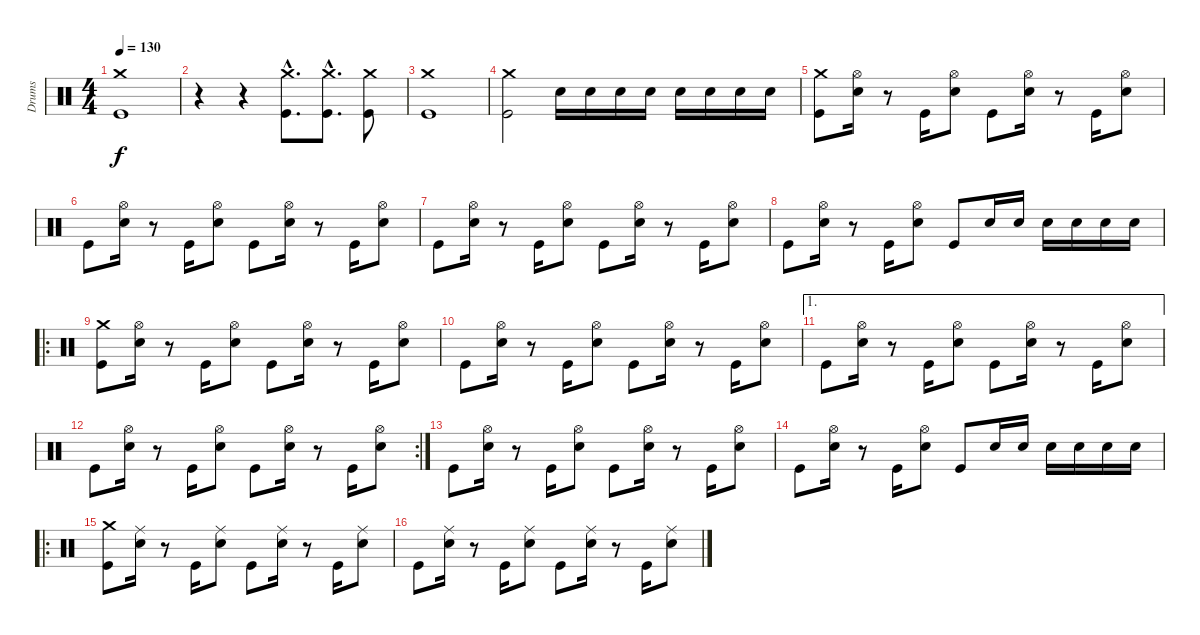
\track ("Drums" "Drums") {instrument percussion}
\staff {score}
\articulation defaults
\ts (4 4)
\tempo 130
\clef neutral
\ks c
("Crash medium (hit)" "Kick (hit)").1{dy f} |
r.4 r.4 ("Crash medium (hit)"{hac} "Kick (hit)"{hac}).8{d} ("Crash medium (hit)"{hac} "Kick (hit)"{hac}).8{d} ("Crash medium (hit)" "Kick (hit)").8 |
("Crash medium (hit)" "Kick (hit)").1 |
("Crash medium (hit)" "Kick (hit)").2 "Electric Snare (hit)".16 "Electric Snare (hit)".16 "Electric Snare (hit)".16 "Electric Snare (hit)".16 "Electric Snare (hit)".16 "Electric Snare (hit)".16 "Electric Snare (hit)".16 "Electric Snare (hit)".16 |
("Crash medium (hit)" "Kick (hit)").8 ("Hi-Hat (open)" "Electric Snare (hit)").16 r.8 "Kick (hit)".16 ("Hi-Hat (open)" "Electric Snare (hit)").8 "Kick (hit)".8 ("Hi-Hat (open)" "Electric Snare (hit)").16 r.8 "Kick (hit)".16 ("Hi-Hat (open)" "Electric Snare (hit)").8 |
"Kick (hit)".8 ("Hi-Hat (open)" "Electric Snare (hit)").16 r.8 "Kick (hit)".16 ("Hi-Hat (open)" "Electric Snare (hit)").8 "Kick (hit)".8 ("Hi-Hat (open)" "Electric Snare (hit)").16 r.8 "Kick (hit)".16 ("Hi-Hat (open)" "Electric Snare (hit)").8 |
"Kick (hit)".8 ("Hi-Hat (open)" "Electric Snare (hit)").16 r.8 "Kick (hit)".16 ("Hi-Hat (open)" "Electric Snare (hit)").8 "Kick (hit)".8 ("Hi-Hat (open)" "Electric Snare (hit)").16 r.8 "Kick (hit)".16 ("Hi-Hat (open)" "Electric Snare (hit)").8 |
"Kick (hit)".8 ("Hi-Hat (open)" "Electric Snare (hit)").16 r.8 "Kick (hit)".16 ("Hi-Hat (open)" "Electric Snare (hit)").8 "Kick (hit)".8 "Electric Snare (hit)".16 "Electric Snare (hit)".16 "Electric Snare (hit)".16 "Electric Snare (hit)".16 "Electric Snare (hit)".16 "Electric Snare (hit)".16 |
\ro
("Crash medium (hit)" "Kick (hit)").8 ("Hi-Hat (open)" "Electric Snare (hit)").16 r.8 "Kick (hit)".16 ("Hi-Hat (open)" "Electric Snare (hit)").8 "Kick (hit)".8 ("Hi-Hat (open)" "Electric Snare (hit)").16 r.8 "Kick (hit)".16 ("Hi-Hat (open)" "Electric Snare (hit)").8 |
"Kick (hit)".8 ("Hi-Hat (open)" "Electric Snare (hit)").16 r.8 "Kick (hit)".16 ("Hi-Hat (open)" "Electric Snare (hit)").8 "Kick (hit)".8 ("Hi-Hat (open)" "Electric Snare (hit)").16 r.8 "Kick (hit)".16 ("Hi-Hat (open)" "Electric Snare (hit)").8 |
\ae 1 "Kick (hit)".8
("Hi-Hat (open)" "Electric Snare (hit)").16 r.8 "Kick (hit)".16 ("Hi-Hat (open)" "Electric Snare (hit)").8 "Kick (hit)".8 ("Hi-Hat (open)" "Electric Snare (hit)").16 r.8 "Kick (hit)".16 ("Hi-Hat (open)" "Electric Snare (hit)").8 |
\rc 2 "Kick (hit)".8
("Hi-Hat (open)" "Electric Snare (hit)").16 r.8 "Kick (hit)".16 ("Hi-Hat (open)" "Electric Snare (hit)").8 "Kick (hit)".8 ("Hi-Hat (open)" "Electric Snare (hit)").16 r.8 "Kick (hit)".16 ("Hi-Hat (open)" "Electric Snare (hit)").8 |
"Kick (hit)".8 ("Hi-Hat (open)" "Electric Snare (hit)").16 r.8 "Kick (hit)".16 ("Hi-Hat (open)" "Electric Snare (hit)").8 "Kick (hit)".8 ("Hi-Hat (open)" "Electric Snare (hit)").16 r.8 "Kick (hit)".16 ("Hi-Hat (open)" "Electric Snare (hit)").8 |
"Kick (hit)".8 ("Hi-Hat (open)" "Electric Snare (hit)").16 r.8 "Kick (hit)".16 ("Hi-Hat (open)" "Electric Snare (hit)").8 "Kick (hit)".8 "Electric Snare (hit)".16 "Electric Snare (hit)".16 "Electric Snare (hit)".16 "Electric Snare (hit)".16 "Electric Snare (hit)".16 "Electric Snare (hit)".16 |
\ro
("Crash medium (hit)" "Kick (hit)").8 ("Ride (middle)" "Electric Snare (hit)").16 r.8 "Kick (hit)".16 ("Ride (middle)" "Electric Snare (hit)").8 "Kick (hit)".8 ("Ride (middle)" "Electric Snare (hit)").16 r.8 "Kick (hit)".16 ("Ride (middle)" "Electric Snare (hit)").8 |
"Kick (hit)".8 ("Ride (middle)" "Electric Snare (hit)").16 r.8 "Kick (hit)".16 ("Ride (middle)" "Electric Snare (hit)").8 "Kick (hit)".8 ("Ride (middle)" "Electric Snare (hit)").16 r.8 "Kick (hit)".16 ("Ride (middle)" "Electric Snare (hit)").8
